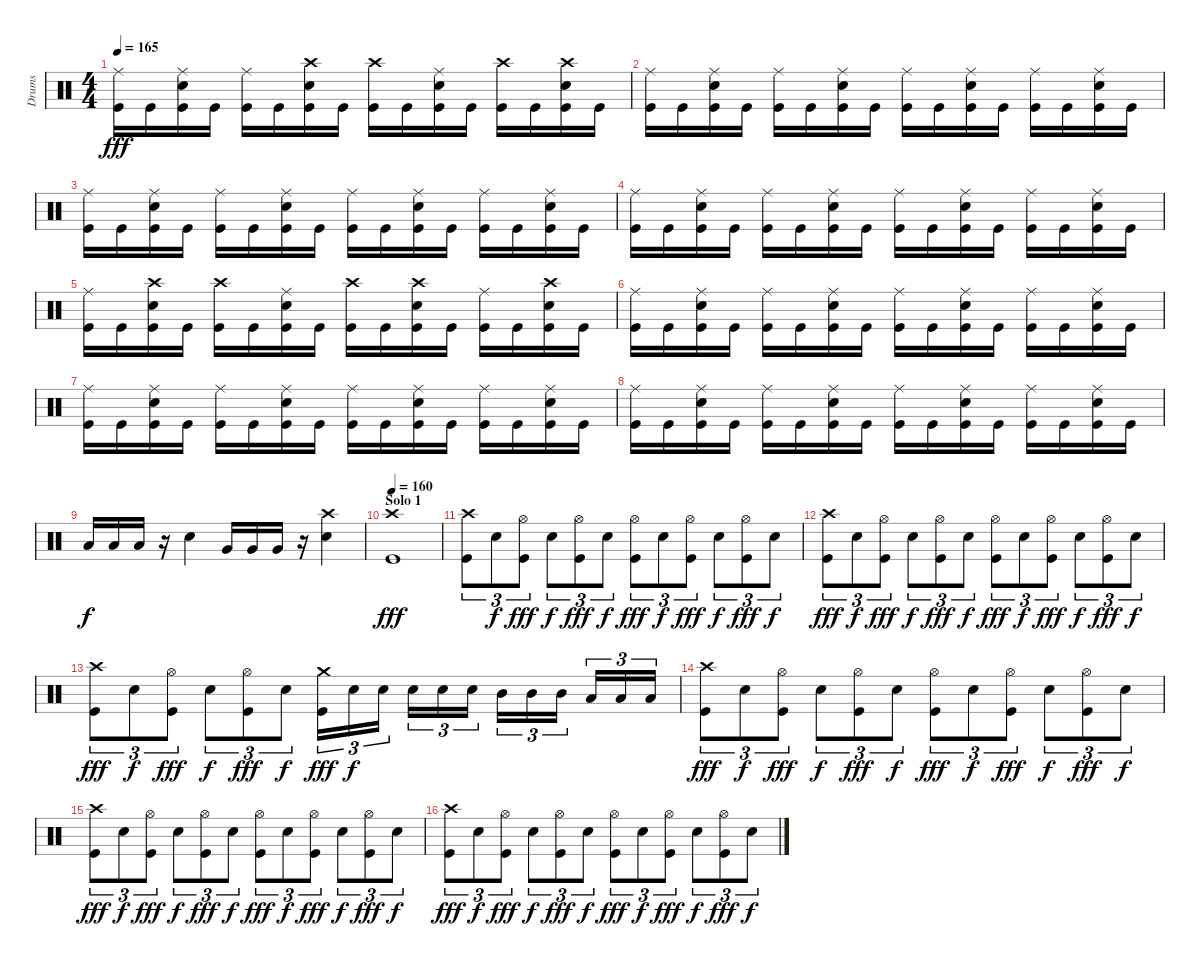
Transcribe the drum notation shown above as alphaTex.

\track ("Drums" "Drums") {instrument percussion}
\staff {score}
\articulation defaults
\ts (4 4)
\tempo 165
\clef neutral
\ks c
("Ride (middle)" "Kick (hit)").16{dy fff} "Kick (hit)".16 ("Ride (middle)" "Electric Snare (hit)" "Kick (hit)").16 "Kick (hit)".16 ("Ride (middle)" "Kick (hit)").16 "Kick (hit)".16 ("Crash high (hit)" "Electric Snare (hit)" "Kick (hit)").16 "Kick (hit)".16 ("Crash high (hit)" "Kick (hit)").16 "Kick (hit)".16 ("Ride (middle)" "Electric Snare (hit)" "Kick (hit)").16 "Kick (hit)".16 ("Crash high (hit)" "Kick (hit)").16 "Kick (hit)".16 ("Crash high (hit)" "Electric Snare (hit)" "Kick (hit)").16 "Kick (hit)".16 |
("Ride (middle)" "Kick (hit)").16 "Kick (hit)".16 ("Ride (middle)" "Electric Snare (hit)" "Kick (hit)").16 "Kick (hit)".16 ("Ride (middle)" "Kick (hit)").16 "Kick (hit)".16 ("Ride (middle)" "Electric Snare (hit)" "Kick (hit)").16 "Kick (hit)".16 ("Ride (middle)" "Kick (hit)").16 "Kick (hit)".16 ("Ride (middle)" "Electric Snare (hit)" "Kick (hit)").16 "Kick (hit)".16 ("Ride (middle)" "Kick (hit)").16 "Kick (hit)".16 ("Ride (middle)" "Electric Snare (hit)" "Kick (hit)").16 "Kick (hit)".16 |
("Ride (middle)" "Kick (hit)").16 "Kick (hit)".16 ("Ride (middle)" "Electric Snare (hit)" "Kick (hit)").16 "Kick (hit)".16 ("Ride (middle)" "Kick (hit)").16 "Kick (hit)".16 ("Ride (middle)" "Electric Snare (hit)" "Kick (hit)").16 "Kick (hit)".16 ("Ride (middle)" "Kick (hit)").16 "Kick (hit)".16 ("Ride (middle)" "Electric Snare (hit)" "Kick (hit)").16 "Kick (hit)".16 ("Ride (middle)" "Kick (hit)").16 "Kick (hit)".16 ("Ride (middle)" "Electric Snare (hit)" "Kick (hit)").16 "Kick (hit)".16 |
("Ride (middle)" "Kick (hit)").16 "Kick (hit)".16 ("Ride (middle)" "Electric Snare (hit)" "Kick (hit)").16 "Kick (hit)".16 ("Ride (middle)" "Kick (hit)").16 "Kick (hit)".16 ("Ride (middle)" "Electric Snare (hit)" "Kick (hit)").16 "Kick (hit)".16 ("Ride (middle)" "Kick (hit)").16 "Kick (hit)".16 ("Ride (middle)" "Electric Snare (hit)" "Kick (hit)").16 "Kick (hit)".16 ("Ride (middle)" "Kick (hit)").16 "Kick (hit)".16 ("Ride (middle)" "Electric Snare (hit)" "Kick (hit)").16 "Kick (hit)".16 |
("Ride (middle)" "Kick (hit)").16 "Kick (hit)".16 ("Crash high (hit)" "Electric Snare (hit)" "Kick (hit)").16 "Kick (hit)".16 ("Crash high (hit)" "Kick (hit)").16 "Kick (hit)".16 ("Ride (middle)" "Electric Snare (hit)" "Kick (hit)").16 "Kick (hit)".16 ("Crash high (hit)" "Kick (hit)").16 "Kick (hit)".16 ("Crash high (hit)" "Electric Snare (hit)" "Kick (hit)").16 "Kick (hit)".16 ("Ride (middle)" "Kick (hit)").16 "Kick (hit)".16 ("Crash high (hit)" "Electric Snare (hit)" "Kick (hit)").16 "Kick (hit)".16 |
("Ride (middle)" "Kick (hit)").16 "Kick (hit)".16 ("Ride (middle)" "Electric Snare (hit)" "Kick (hit)").16 "Kick (hit)".16 ("Ride (middle)" "Kick (hit)").16 "Kick (hit)".16 ("Ride (middle)" "Electric Snare (hit)" "Kick (hit)").16 "Kick (hit)".16 ("Ride (middle)" "Kick (hit)").16 "Kick (hit)".16 ("Ride (middle)" "Electric Snare (hit)" "Kick (hit)").16 "Kick (hit)".16 ("Ride (middle)" "Kick (hit)").16 "Kick (hit)".16 ("Ride (middle)" "Electric Snare (hit)" "Kick (hit)").16 "Kick (hit)".16 |
("Ride (middle)" "Kick (hit)").16 "Kick (hit)".16 ("Ride (middle)" "Electric Snare (hit)" "Kick (hit)").16 "Kick (hit)".16 ("Ride (middle)" "Kick (hit)").16 "Kick (hit)".16 ("Ride (middle)" "Electric Snare (hit)" "Kick (hit)").16 "Kick (hit)".16 ("Ride (middle)" "Kick (hit)").16 "Kick (hit)".16 ("Ride (middle)" "Electric Snare (hit)" "Kick (hit)").16 "Kick (hit)".16 ("Ride (middle)" "Kick (hit)").16 "Kick (hit)".16 ("Ride (middle)" "Electric Snare (hit)" "Kick (hit)").16 "Kick (hit)".16 |
("Ride (middle)" "Kick (hit)").16 "Kick (hit)".16 ("Ride (middle)" "Electric Snare (hit)" "Kick (hit)").16 "Kick (hit)".16 ("Ride (middle)" "Kick (hit)").16 "Kick (hit)".16 ("Ride (middle)" "Electric Snare (hit)" "Kick (hit)").16 "Kick (hit)".16 ("Ride (middle)" "Kick (hit)").16 "Kick (hit)".16 ("Ride (middle)" "Electric Snare (hit)" "Kick (hit)").16 "Kick (hit)".16 ("Ride (middle)" "Kick (hit)").16 "Kick (hit)".16 ("Ride (middle)" "Electric Snare (hit)" "Kick (hit)").16 "Kick (hit)".16 |
"Low Tom (hit)".16{dy f} "Low Tom (hit)".16 "Low Tom (hit)".16 r.16 "Electric Snare (hit)".4 "Very Low Tom (hit)".16 "Very Low Tom (hit)".16 "Very Low Tom (hit)".16 r.16 ("Crash high (hit)" "Electric Snare (hit)").4 |
\section ("" "Solo 1")
\tempo 160
("Crash high (hit)" "Kick (hit)").1{dy fff} |
("Crash high (hit)" "Kick (hit)").8{tu (3 2)} "Electric Snare (hit)".8{tu (3 2) dy f} ("Hi-Hat (open)" "Kick (hit)").8{tu (3 2) dy fff} "Electric Snare (hit)".8{tu (3 2) dy f} ("Hi-Hat (open)" "Kick (hit)").8{tu (3 2) dy fff} "Electric Snare (hit)".8{tu (3 2) dy f} ("Hi-Hat (open)" "Kick (hit)").8{tu (3 2) dy fff} "Electric Snare (hit)".8{tu (3 2) dy f} ("Hi-Hat (open)" "Kick (hit)").8{tu (3 2) dy fff} "Electric Snare (hit)".8{tu (3 2) dy f} ("Hi-Hat (open)" "Kick (hit)").8{tu (3 2) dy fff} "Electric Snare (hit)".8{tu (3 2) dy f} |
("Crash high (hit)" "Kick (hit)").8{tu (3 2) dy fff} "Electric Snare (hit)".8{tu (3 2) dy f} ("Hi-Hat (open)" "Kick (hit)").8{tu (3 2) dy fff} "Electric Snare (hit)".8{tu (3 2) dy f} ("Hi-Hat (open)" "Kick (hit)").8{tu (3 2) dy fff} "Electric Snare (hit)".8{tu (3 2) dy f} ("Hi-Hat (open)" "Kick (hit)").8{tu (3 2) dy fff} "Electric Snare (hit)".8{tu (3 2) dy f} ("Hi-Hat (open)" "Kick (hit)").8{tu (3 2) dy fff} "Electric Snare (hit)".8{tu (3 2) dy f} ("Hi-Hat (open)" "Kick (hit)").8{tu (3 2) dy fff} "Electric Snare (hit)".8{tu (3 2) dy f} |
("Crash high (hit)" "Kick (hit)").8{tu (3 2) dy fff} "Electric Snare (hit)".8{tu (3 2) dy f} ("Hi-Hat (open)" "Kick (hit)").8{tu (3 2) dy fff} "Electric Snare (hit)".8{tu (3 2) dy f} ("Hi-Hat (open)" "Kick (hit)").8{tu (3 2) dy fff} "Electric Snare (hit)".8{tu (3 2) dy f} ("Crash medium (hit)" "Kick (hit)").16{tu (3 2) dy fff} "Electric Snare (hit)".16{tu (3 2) dy f} "Electric Snare (hit)".16{tu (3 2)} "Electric Snare (hit)".16{tu (3 2)} "Electric Snare (hit)".16{tu (3 2)} "Electric Snare (hit)".16{tu (3 2)} "Mid Tom (hit)".16{tu (3 2)} "Mid Tom (hit)".16{tu (3 2)} "Mid Tom (hit)".16{tu (3 2)} "Low Tom (hit)".16{tu (3 2)} "Low Tom (hit)".16{tu (3 2)} "Low Tom (hit)".16{tu (3 2)} |
("Crash high (hit)" "Kick (hit)").8{tu (3 2) dy fff} "Electric Snare (hit)".8{tu (3 2) dy f} ("Hi-Hat (open)" "Kick (hit)").8{tu (3 2) dy fff} "Electric Snare (hit)".8{tu (3 2) dy f} ("Hi-Hat (open)" "Kick (hit)").8{tu (3 2) dy fff} "Electric Snare (hit)".8{tu (3 2) dy f} ("Hi-Hat (open)" "Kick (hit)").8{tu (3 2) dy fff} "Electric Snare (hit)".8{tu (3 2) dy f} ("Hi-Hat (open)" "Kick (hit)").8{tu (3 2) dy fff} "Electric Snare (hit)".8{tu (3 2) dy f} ("Hi-Hat (open)" "Kick (hit)").8{tu (3 2) dy fff} "Electric Snare (hit)".8{tu (3 2) dy f} |
("Crash high (hit)" "Kick (hit)").8{tu (3 2) dy fff} "Electric Snare (hit)".8{tu (3 2) dy f} ("Hi-Hat (open)" "Kick (hit)").8{tu (3 2) dy fff} "Electric Snare (hit)".8{tu (3 2) dy f} ("Hi-Hat (open)" "Kick (hit)").8{tu (3 2) dy fff} "Electric Snare (hit)".8{tu (3 2) dy f} ("Hi-Hat (open)" "Kick (hit)").8{tu (3 2) dy fff} "Electric Snare (hit)".8{tu (3 2) dy f} ("Hi-Hat (open)" "Kick (hit)").8{tu (3 2) dy fff} "Electric Snare (hit)".8{tu (3 2) dy f} ("Hi-Hat (open)" "Kick (hit)").8{tu (3 2) dy fff} "Electric Snare (hit)".8{tu (3 2) dy f} |
("Crash high (hit)" "Kick (hit)").8{tu (3 2) dy fff} "Electric Snare (hit)".8{tu (3 2) dy f} ("Hi-Hat (open)" "Kick (hit)").8{tu (3 2) dy fff} "Electric Snare (hit)".8{tu (3 2) dy f} ("Hi-Hat (open)" "Kick (hit)").8{tu (3 2) dy fff} "Electric Snare (hit)".8{tu (3 2) dy f} ("Hi-Hat (open)" "Kick (hit)").8{tu (3 2) dy fff} "Electric Snare (hit)".8{tu (3 2) dy f} ("Hi-Hat (open)" "Kick (hit)").8{tu (3 2) dy fff} "Electric Snare (hit)".8{tu (3 2) dy f} ("Hi-Hat (open)" "Kick (hit)").8{tu (3 2) dy fff} "Electric Snare (hit)".8{tu (3 2) dy f}
